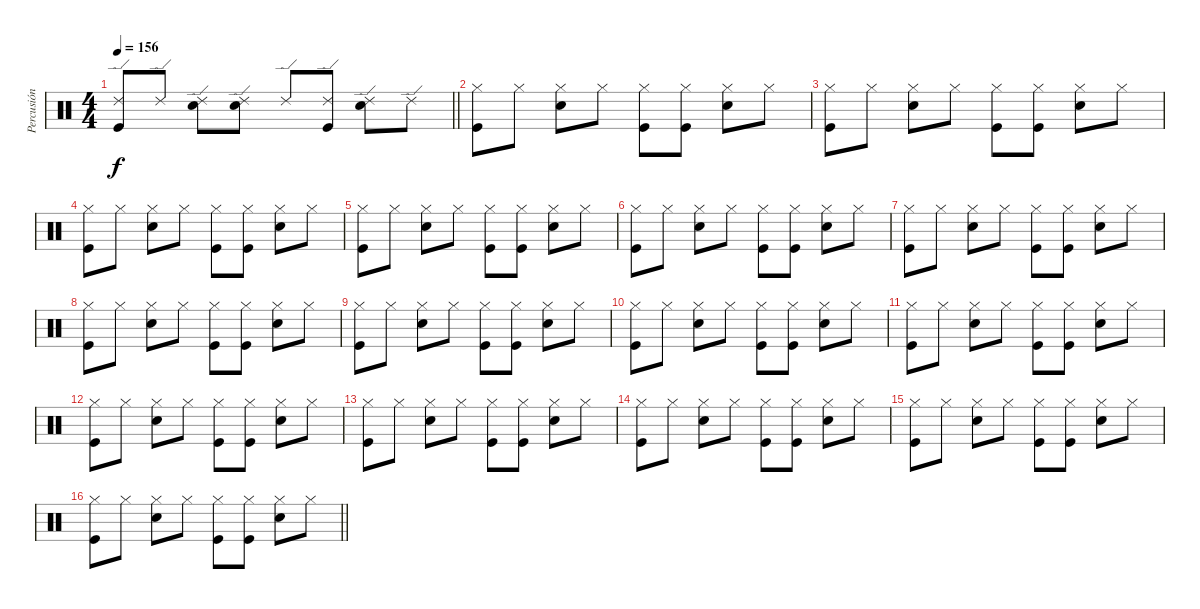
\track ("Percusión" "Percusión") {instrument percussion}
\staff {score}
\articulation defaults
\ts (4 4)
\tempo 156
\clef neutral
\barLineRight lightlight
\ks c
("Ride (edge) 2" "Kick (hit)").8{dy f} "Ride (edge) 2".8 ("Ride (edge) 2" "Electric Snare (hit)").8 ("Ride (edge) 2" "Electric Snare (hit)").8 "Ride (edge) 2".8 ("Ride (edge) 2" "Kick (hit)").8 ("Ride (edge) 2" "Electric Snare (hit)").8 "Ride (edge) 2".8 |
("Hi-Hat (closed)" "Kick (hit)").8 "Hi-Hat (closed)".8 ("Hi-Hat (closed)" "Electric Snare (hit)").8 "Hi-Hat (closed)".8 ("Hi-Hat (closed)" "Kick (hit)").8 ("Hi-Hat (closed)" "Kick (hit)").8 ("Hi-Hat (closed)" "Electric Snare (hit)").8 "Hi-Hat (closed)".8 |
("Hi-Hat (closed)" "Kick (hit)").8 "Hi-Hat (closed)".8 ("Hi-Hat (closed)" "Electric Snare (hit)").8 "Hi-Hat (closed)".8 ("Hi-Hat (closed)" "Kick (hit)").8 ("Hi-Hat (closed)" "Kick (hit)").8 ("Hi-Hat (closed)" "Electric Snare (hit)").8 "Hi-Hat (closed)".8 |
("Hi-Hat (closed)" "Kick (hit)").8 "Hi-Hat (closed)".8 ("Hi-Hat (closed)" "Electric Snare (hit)").8 "Hi-Hat (closed)".8 ("Hi-Hat (closed)" "Kick (hit)").8 ("Hi-Hat (closed)" "Kick (hit)").8 ("Hi-Hat (closed)" "Electric Snare (hit)").8 "Hi-Hat (closed)".8 |
("Hi-Hat (closed)" "Kick (hit)").8 "Hi-Hat (closed)".8 ("Hi-Hat (closed)" "Electric Snare (hit)").8 "Hi-Hat (closed)".8 ("Hi-Hat (closed)" "Kick (hit)").8 ("Hi-Hat (closed)" "Kick (hit)").8 ("Hi-Hat (closed)" "Electric Snare (hit)").8 "Hi-Hat (closed)".8 |
("Hi-Hat (closed)" "Kick (hit)").8 "Hi-Hat (closed)".8 ("Hi-Hat (closed)" "Electric Snare (hit)").8 "Hi-Hat (closed)".8 ("Hi-Hat (closed)" "Kick (hit)").8 ("Hi-Hat (closed)" "Kick (hit)").8 ("Hi-Hat (closed)" "Electric Snare (hit)").8 "Hi-Hat (closed)".8 |
("Hi-Hat (closed)" "Kick (hit)").8 "Hi-Hat (closed)".8 ("Hi-Hat (closed)" "Electric Snare (hit)").8 "Hi-Hat (closed)".8 ("Hi-Hat (closed)" "Kick (hit)").8 ("Hi-Hat (closed)" "Kick (hit)").8 ("Hi-Hat (closed)" "Electric Snare (hit)").8 "Hi-Hat (closed)".8 |
("Hi-Hat (closed)" "Kick (hit)").8 "Hi-Hat (closed)".8 ("Hi-Hat (closed)" "Electric Snare (hit)").8 "Hi-Hat (closed)".8 ("Hi-Hat (closed)" "Kick (hit)").8 ("Hi-Hat (closed)" "Kick (hit)").8 ("Hi-Hat (closed)" "Electric Snare (hit)").8 "Hi-Hat (closed)".8 |
("Hi-Hat (closed)" "Kick (hit)").8 "Hi-Hat (closed)".8 ("Hi-Hat (closed)" "Electric Snare (hit)").8 "Hi-Hat (closed)".8 ("Hi-Hat (closed)" "Kick (hit)").8 ("Hi-Hat (closed)" "Kick (hit)").8 ("Hi-Hat (closed)" "Electric Snare (hit)").8 "Hi-Hat (closed)".8 |
("Hi-Hat (closed)" "Kick (hit)").8 "Hi-Hat (closed)".8 ("Hi-Hat (closed)" "Electric Snare (hit)").8 "Hi-Hat (closed)".8 ("Hi-Hat (closed)" "Kick (hit)").8 ("Hi-Hat (closed)" "Kick (hit)").8 ("Hi-Hat (closed)" "Electric Snare (hit)").8 "Hi-Hat (closed)".8 |
("Hi-Hat (closed)" "Kick (hit)").8 "Hi-Hat (closed)".8 ("Hi-Hat (closed)" "Electric Snare (hit)").8 "Hi-Hat (closed)".8 ("Hi-Hat (closed)" "Kick (hit)").8 ("Hi-Hat (closed)" "Kick (hit)").8 ("Hi-Hat (closed)" "Electric Snare (hit)").8 "Hi-Hat (closed)".8 |
("Hi-Hat (closed)" "Kick (hit)").8 "Hi-Hat (closed)".8 ("Hi-Hat (closed)" "Electric Snare (hit)").8 "Hi-Hat (closed)".8 ("Hi-Hat (closed)" "Kick (hit)").8 ("Hi-Hat (closed)" "Kick (hit)").8 ("Hi-Hat (closed)" "Electric Snare (hit)").8 "Hi-Hat (closed)".8 |
("Hi-Hat (closed)" "Kick (hit)").8 "Hi-Hat (closed)".8 ("Hi-Hat (closed)" "Electric Snare (hit)").8 "Hi-Hat (closed)".8 ("Hi-Hat (closed)" "Kick (hit)").8 ("Hi-Hat (closed)" "Kick (hit)").8 ("Hi-Hat (closed)" "Electric Snare (hit)").8 "Hi-Hat (closed)".8 |
("Hi-Hat (closed)" "Kick (hit)").8 "Hi-Hat (closed)".8 ("Hi-Hat (closed)" "Electric Snare (hit)").8 "Hi-Hat (closed)".8 ("Hi-Hat (closed)" "Kick (hit)").8 ("Hi-Hat (closed)" "Kick (hit)").8 ("Hi-Hat (closed)" "Electric Snare (hit)").8 "Hi-Hat (closed)".8 |
("Hi-Hat (closed)" "Kick (hit)").8 "Hi-Hat (closed)".8 ("Hi-Hat (closed)" "Electric Snare (hit)").8 "Hi-Hat (closed)".8 ("Hi-Hat (closed)" "Kick (hit)").8 ("Hi-Hat (closed)" "Kick (hit)").8 ("Hi-Hat (closed)" "Electric Snare (hit)").8 "Hi-Hat (closed)".8 |
\barLineRight lightlight
("Hi-Hat (closed)" "Kick (hit)").8 "Hi-Hat (closed)".8 ("Hi-Hat (closed)" "Electric Snare (hit)").8 "Hi-Hat (closed)".8 ("Hi-Hat (closed)" "Kick (hit)").8 ("Hi-Hat (closed)" "Kick (hit)").8 ("Hi-Hat (closed)" "Electric Snare (hit)").8 "Hi-Hat (closed)".8
